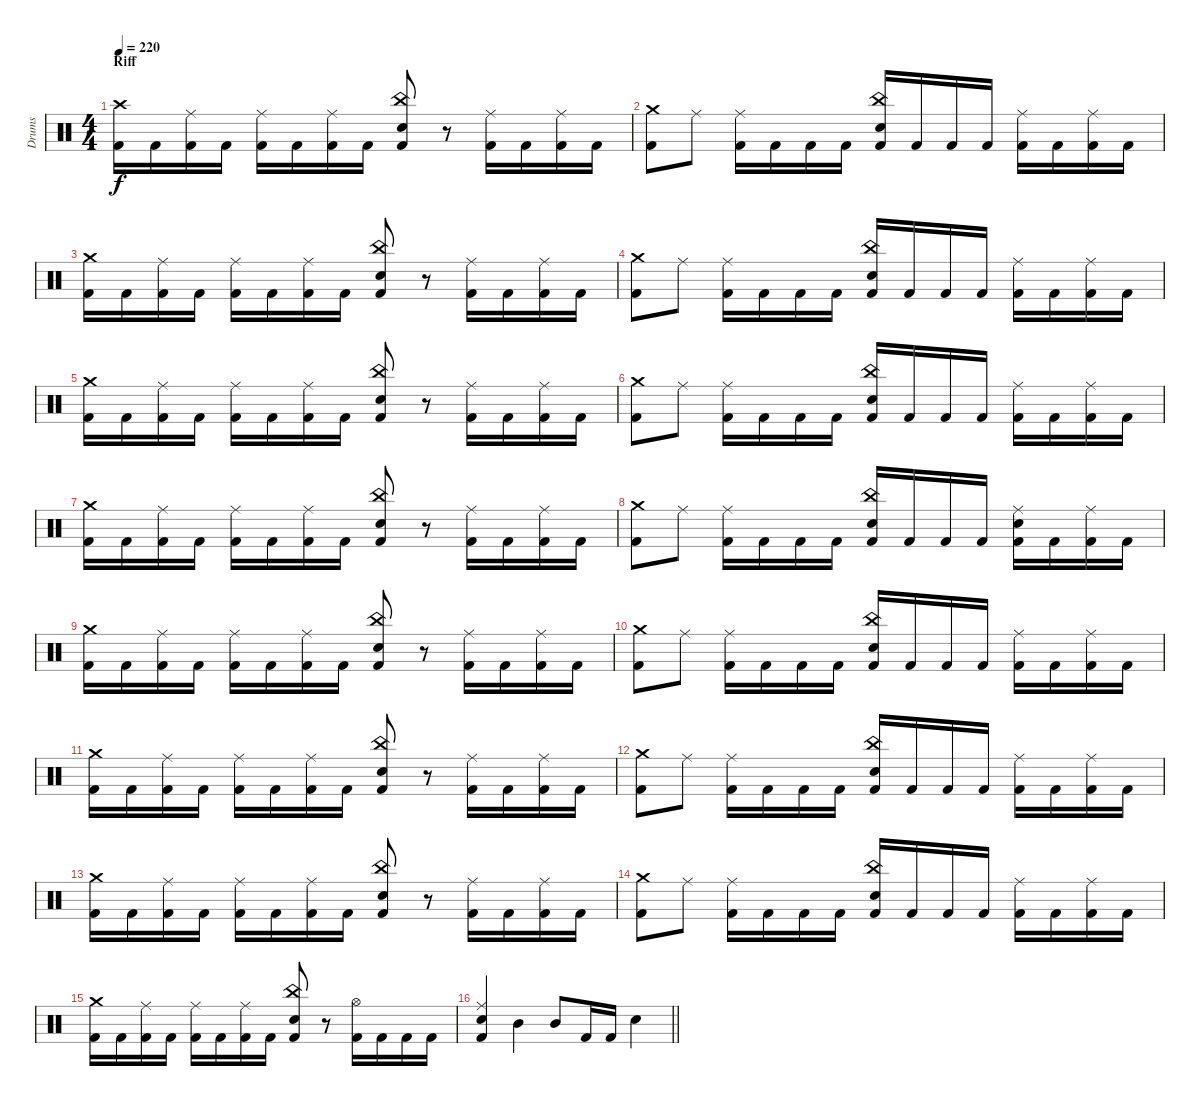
\track ("Drums" "Drums") {instrument percussion}
\staff {score}
\articulation defaults
\ts (4 4)
\section ("" "Riff")
\tempo 220
\clef neutral
\ks c
("Crash high (hit)" "Kick (hit) 2").16{dy f} "Kick (hit) 2".16 ("Ride (middle)" "Kick (hit) 2").16 "Kick (hit) 2".16 ("Ride (middle)" "Kick (hit) 2").16 "Kick (hit) 2".16 ("Ride (middle)" "Kick (hit) 2").16 "Kick (hit) 2".16 ("China (hit)" "Electric Snare (hit)" "Kick (hit) 2").8 r.8 ("Ride (middle)" "Kick (hit) 2").16 "Kick (hit) 2".16 ("Ride (middle)" "Kick (hit) 2").16 "Kick (hit) 2".16 |
("Crash medium (hit)" "Kick (hit) 2").8 "Ride (middle)".8 ("Ride (middle)" "Kick (hit) 2").16 "Kick (hit) 2".16 "Kick (hit) 2".16 "Kick (hit) 2".16 ("China (hit)" "Electric Snare (hit)" "Kick (hit) 2").16 "Kick (hit) 2".16 "Kick (hit) 2".16 "Kick (hit) 2".16 ("Ride (middle)" "Kick (hit) 2").16 "Kick (hit) 2".16 ("Ride (middle)" "Kick (hit) 2").16 "Kick (hit) 2".16 |
("Crash medium (hit)" "Kick (hit) 2").16 "Kick (hit) 2".16 ("Ride (middle)" "Kick (hit) 2").16 "Kick (hit) 2".16 ("Ride (middle)" "Kick (hit) 2").16 "Kick (hit) 2".16 ("Ride (middle)" "Kick (hit) 2").16 "Kick (hit) 2".16 ("China (hit)" "Electric Snare (hit)" "Kick (hit) 2").8 r.8 ("Ride (middle)" "Kick (hit) 2").16 "Kick (hit) 2".16 ("Ride (middle)" "Kick (hit) 2").16 "Kick (hit) 2".16 |
("Crash medium (hit)" "Kick (hit) 2").8 "Ride (middle)".8 ("Ride (middle)" "Kick (hit) 2").16 "Kick (hit) 2".16 "Kick (hit) 2".16 "Kick (hit) 2".16 ("China (hit)" "Electric Snare (hit)" "Kick (hit) 2").16 "Kick (hit) 2".16 "Kick (hit) 2".16 "Kick (hit) 2".16 ("Ride (middle)" "Kick (hit) 2").16 "Kick (hit) 2".16 ("Ride (middle)" "Kick (hit) 2").16 "Kick (hit) 2".16 |
("Crash medium (hit)" "Kick (hit) 2").16 "Kick (hit) 2".16 ("Ride (middle)" "Kick (hit) 2").16 "Kick (hit) 2".16 ("Ride (middle)" "Kick (hit) 2").16 "Kick (hit) 2".16 ("Ride (middle)" "Kick (hit) 2").16 "Kick (hit) 2".16 ("China (hit)" "Electric Snare (hit)" "Kick (hit) 2").8 r.8 ("Ride (middle)" "Kick (hit) 2").16 "Kick (hit) 2".16 ("Ride (middle)" "Kick (hit) 2").16 "Kick (hit) 2".16 |
("Crash medium (hit)" "Kick (hit) 2").8 "Ride (middle)".8 ("Ride (middle)" "Kick (hit) 2").16 "Kick (hit) 2".16 "Kick (hit) 2".16 "Kick (hit) 2".16 ("China (hit)" "Electric Snare (hit)" "Kick (hit) 2").16 "Kick (hit) 2".16 "Kick (hit) 2".16 "Kick (hit) 2".16 ("Ride (middle)" "Kick (hit) 2").16 "Kick (hit) 2".16 ("Ride (middle)" "Kick (hit) 2").16 "Kick (hit) 2".16 |
("Crash medium (hit)" "Kick (hit) 2").16 "Kick (hit) 2".16 ("Ride (middle)" "Kick (hit) 2").16 "Kick (hit) 2".16 ("Ride (middle)" "Kick (hit) 2").16 "Kick (hit) 2".16 ("Ride (middle)" "Kick (hit) 2").16 "Kick (hit) 2".16 ("China (hit)" "Electric Snare (hit)" "Kick (hit) 2").8 r.8 ("Ride (middle)" "Kick (hit) 2").16 "Kick (hit) 2".16 ("Ride (middle)" "Kick (hit) 2").16 "Kick (hit) 2".16 |
("Crash medium (hit)" "Kick (hit) 2").8 "Ride (middle)".8 ("Ride (middle)" "Kick (hit) 2").16 "Kick (hit) 2".16 "Kick (hit) 2".16 "Kick (hit) 2".16 ("China (hit)" "Electric Snare (hit)" "Kick (hit) 2").16 "Kick (hit) 2".16 "Kick (hit) 2".16 "Kick (hit) 2".16 ("Ride (middle)" "Electric Snare (hit)" "Kick (hit) 2").16 "Kick (hit) 2".16 ("Ride (middle)" "Kick (hit) 2").16 "Kick (hit) 2".16 |
("Crash medium (hit)" "Kick (hit) 2").16 "Kick (hit) 2".16 ("Ride (middle)" "Kick (hit) 2").16 "Kick (hit) 2".16 ("Ride (middle)" "Kick (hit) 2").16 "Kick (hit) 2".16 ("Ride (middle)" "Kick (hit) 2").16 "Kick (hit) 2".16 ("China (hit)" "Electric Snare (hit)" "Kick (hit) 2").8 r.8 ("Ride (middle)" "Kick (hit) 2").16 "Kick (hit) 2".16 ("Ride (middle)" "Kick (hit) 2").16 "Kick (hit) 2".16 |
("Crash medium (hit)" "Kick (hit) 2").8 "Ride (middle)".8 ("Ride (middle)" "Kick (hit) 2").16 "Kick (hit) 2".16 "Kick (hit) 2".16 "Kick (hit) 2".16 ("China (hit)" "Electric Snare (hit)" "Kick (hit) 2").16 "Kick (hit) 2".16 "Kick (hit) 2".16 "Kick (hit) 2".16 ("Ride (middle)" "Kick (hit) 2").16 "Kick (hit) 2".16 ("Ride (middle)" "Kick (hit) 2").16 "Kick (hit) 2".16 |
("Crash medium (hit)" "Kick (hit) 2").16 "Kick (hit) 2".16 ("Ride (middle)" "Kick (hit) 2").16 "Kick (hit) 2".16 ("Ride (middle)" "Kick (hit) 2").16 "Kick (hit) 2".16 ("Ride (middle)" "Kick (hit) 2").16 "Kick (hit) 2".16 ("China (hit)" "Electric Snare (hit)" "Kick (hit) 2").8 r.8 ("Ride (middle)" "Kick (hit) 2").16 "Kick (hit) 2".16 ("Ride (middle)" "Kick (hit) 2").16 "Kick (hit) 2".16 |
("Crash medium (hit)" "Kick (hit) 2").8 "Ride (middle)".8 ("Ride (middle)" "Kick (hit) 2").16 "Kick (hit) 2".16 "Kick (hit) 2".16 "Kick (hit) 2".16 ("China (hit)" "Electric Snare (hit)" "Kick (hit) 2").16 "Kick (hit) 2".16 "Kick (hit) 2".16 "Kick (hit) 2".16 ("Ride (middle)" "Kick (hit) 2").16 "Kick (hit) 2".16 ("Ride (middle)" "Kick (hit) 2").16 "Kick (hit) 2".16 |
("Crash medium (hit)" "Kick (hit) 2").16 "Kick (hit) 2".16 ("Ride (middle)" "Kick (hit) 2").16 "Kick (hit) 2".16 ("Ride (middle)" "Kick (hit) 2").16 "Kick (hit) 2".16 ("Ride (middle)" "Kick (hit) 2").16 "Kick (hit) 2".16 ("China (hit)" "Electric Snare (hit)" "Kick (hit) 2").8 r.8 ("Ride (middle)" "Kick (hit) 2").16 "Kick (hit) 2".16 ("Ride (middle)" "Kick (hit) 2").16 "Kick (hit) 2".16 |
("Crash medium (hit)" "Kick (hit) 2").8 "Ride (middle)".8 ("Ride (middle)" "Kick (hit) 2").16 "Kick (hit) 2".16 "Kick (hit) 2".16 "Kick (hit) 2".16 ("China (hit)" "Electric Snare (hit)" "Kick (hit) 2").16 "Kick (hit) 2".16 "Kick (hit) 2".16 "Kick (hit) 2".16 ("Ride (middle)" "Kick (hit) 2").16 "Kick (hit) 2".16 ("Ride (middle)" "Kick (hit) 2").16 "Kick (hit) 2".16 |
("Crash medium (hit)" "Kick (hit) 2").16 "Kick (hit) 2".16 ("Ride (middle)" "Kick (hit) 2").16 "Kick (hit) 2".16 ("Ride (middle)" "Kick (hit) 2").16 "Kick (hit) 2".16 ("Ride (middle)" "Kick (hit) 2").16 "Kick (hit) 2".16 ("China (hit)" "Electric Snare (hit)" "Kick (hit) 2").8 r.8 ("Hi-Hat (open)" "Kick (hit) 2").16 "Kick (hit) 2".16 "Kick (hit) 2".16 "Kick (hit) 2".16 |
\barLineRight lightlight
("Ride (middle)" "Electric Snare (hit)" "Kick (hit) 2").4 "Mid Tom (hit)".4 "Mid Tom (hit)".8 "Kick (hit) 2".16 "Kick (hit) 2".16 "Electric Snare (hit)".4
